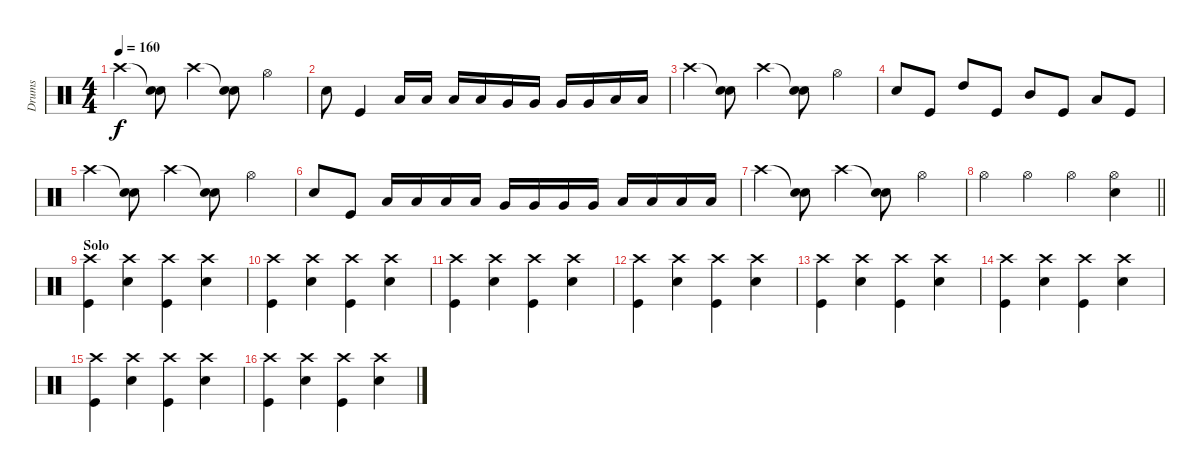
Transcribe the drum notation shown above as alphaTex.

\track ("Drums" "Drums") {instrument percussion}
\staff {score}
\articulation defaults
\ts (4 4)
\tempo 160
\clef neutral
\ks c "Crash high (hit)".4{dy f}
("Snare (hit)"{t} "Electric Snare (hit)").8 "Crash high (hit)".4 ("Snare (hit)"{t} "Electric Snare (hit)").8 "Hi-Hat (open)".4 |
"Snare (hit) 2".8 "Kick (hit)".4 "Low Tom (hit)".16 "Low Tom (hit)".16 "Low Tom (hit)".16 "Low Tom (hit)".16 "Very Low Tom (hit)".16 "Very Low Tom (hit)".16 "Very Low Tom (hit)".16 "Very Low Tom (hit)".16 "Low Floor Tom (hit)".16 "Low Floor Tom (hit)".16 |
"Crash high (hit)".4 ("Snare (hit)"{t} "Electric Snare (hit)").8 "Crash high (hit)".4 ("Snare (hit)"{t} "Electric Snare (hit)").8 "Hi-Hat (open)".4 |
"Snare (hit) 2".8 "Kick (hit)".8 "High Tom (hit)".8 "Kick (hit)".8 "Mid Tom (hit)".8 "Kick (hit)".8 "Low Tom (hit)".8 "Kick (hit)".8 |
"Crash high (hit)".4 ("Snare (hit)"{t} "Electric Snare (hit)").8 "Crash high (hit)".4 ("Snare (hit)"{t} "Electric Snare (hit)").8 "Hi-Hat (open)".4 |
"Snare (hit) 2".8 "Kick (hit)".8 "Low Tom (hit)".16 "Low Tom (hit)".16 "Low Tom (hit)".16 "Low Tom (hit)".16 "Very Low Tom (hit)".16 "Very Low Tom (hit)".16 "Very Low Tom (hit)".16 "Very Low Tom (hit)".16 "Low Floor Tom (hit)".16 "Low Floor Tom (hit)".16 "Low Floor Tom (hit)".16 "Low Floor Tom (hit)".16 |
"Crash high (hit)".4 ("Snare (hit)"{t} "Electric Snare (hit)").8 "Crash high (hit)".4 ("Snare (hit)"{t} "Electric Snare (hit)").8 "Hi-Hat (open)".4 |
\barLineRight lightlight "Hi-Hat (open)".4 "Hi-Hat (open)".4 "Hi-Hat (open)".4
("Snare (hit) 2" "Hi-Hat (open)").4 |
\section ("" "Solo")
("Crash high (hit)" "Kick (hit)").4 ("Crash high (hit)" "Snare (hit) 2").4 ("Crash high (hit)" "Kick (hit)").4 ("Crash high (hit)" "Snare (hit) 2").4 |
("Crash high (hit)" "Kick (hit)").4 ("Crash high (hit)" "Snare (hit) 2").4 ("Crash high (hit)" "Kick (hit)").4 ("Crash high (hit)" "Snare (hit) 2").4 |
("Crash high (hit)" "Kick (hit)").4 ("Crash high (hit)" "Snare (hit) 2").4 ("Crash high (hit)" "Kick (hit)").4 ("Crash high (hit)" "Snare (hit) 2").4 |
("Crash high (hit)" "Kick (hit)").4 ("Crash high (hit)" "Snare (hit) 2").4 ("Crash high (hit)" "Kick (hit)").4 ("Crash high (hit)" "Snare (hit) 2").4 |
("Crash high (hit)" "Kick (hit)").4 ("Crash high (hit)" "Snare (hit) 2").4 ("Crash high (hit)" "Kick (hit)").4 ("Crash high (hit)" "Snare (hit) 2").4 |
("Crash high (hit)" "Kick (hit)").4 ("Crash high (hit)" "Snare (hit) 2").4 ("Crash high (hit)" "Kick (hit)").4 ("Crash high (hit)" "Snare (hit) 2").4 |
("Crash high (hit)" "Kick (hit)").4 ("Crash high (hit)" "Snare (hit) 2").4 ("Crash high (hit)" "Kick (hit)").4 ("Crash high (hit)" "Snare (hit) 2").4 |
("Crash high (hit)" "Kick (hit)").4 ("Crash high (hit)" "Snare (hit) 2").4 ("Crash high (hit)" "Kick (hit)").4 ("Crash high (hit)" "Snare (hit) 2").4
